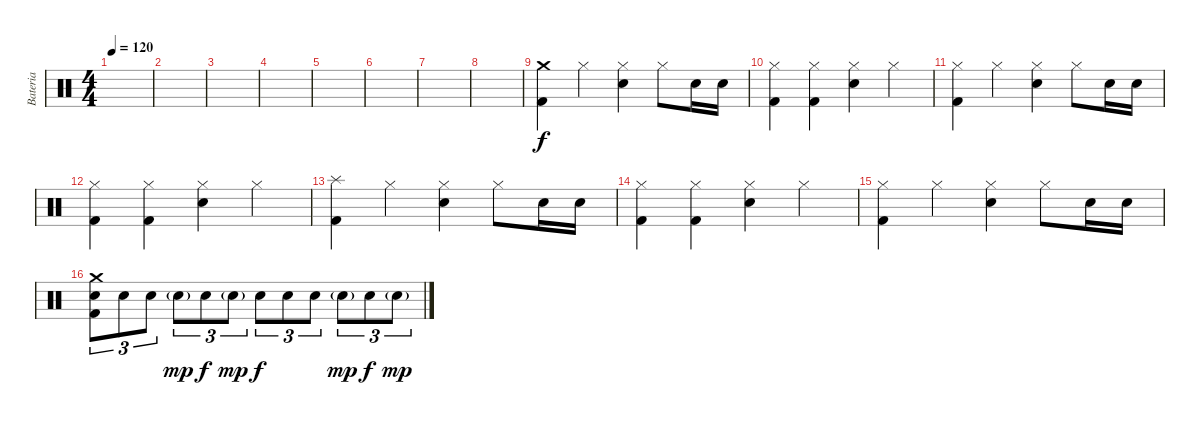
\track ("Bateria" "Bateria") {instrument percussion}
\staff
\articulation defaults
\ts (4 4)
\tempo 120
\clef neutral
\ks c
|
|
|
|
|
|
|
|
("Crash medium (hit)" "Kick (hit) 2").4 "Hi-Hat (closed)".4 ("Hi-Hat (closed)" "Electric Snare (hit)").4 "Hi-Hat (closed)".8 "Electric Snare (hit)".16 "Electric Snare (hit)".16 |
("Hi-Hat (closed)" "Kick (hit) 2").4 ("Hi-Hat (closed)" "Kick (hit) 2").4 ("Hi-Hat (closed)" "Electric Snare (hit)").4 "Hi-Hat (closed)".4 |
("Hi-Hat (closed)" "Kick (hit) 2").4 "Hi-Hat (closed)".4 ("Hi-Hat (closed)" "Electric Snare (hit)").4 "Hi-Hat (closed)".8 "Electric Snare (hit)".16 "Electric Snare (hit)".16 |
("Hi-Hat (closed)" "Kick (hit) 2").4 ("Hi-Hat (closed)" "Kick (hit) 2").4 ("Hi-Hat (closed)" "Electric Snare (hit)").4 "Hi-Hat (closed)".4 |
("Splash (hit)" "Kick (hit) 2").4 "Hi-Hat (closed)".4 ("Hi-Hat (closed)" "Electric Snare (hit)").4 "Hi-Hat (closed)".8 "Electric Snare (hit)".16 "Electric Snare (hit)".16 |
("Hi-Hat (closed)" "Kick (hit) 2").4 ("Hi-Hat (closed)" "Kick (hit) 2").4 ("Hi-Hat (closed)" "Electric Snare (hit)").4 "Hi-Hat (closed)".4 |
("Hi-Hat (closed)" "Kick (hit) 2").4 "Hi-Hat (closed)".4 ("Hi-Hat (closed)" "Electric Snare (hit)").4 "Hi-Hat (closed)".8 "Electric Snare (hit)".16 "Electric Snare (hit)".16 |
("Crash medium (hit)" "Electric Snare (hit)" "Kick (hit) 2").8{tu (3 2)} "Electric Snare (hit)".8{tu (3 2)} "Electric Snare (hit)".8{tu (3 2)} "Electric Snare (hit)"{g}.8{tu (3 2) dy mp} "Electric Snare (hit)".8{tu (3 2) dy f} "Electric Snare (hit)"{g}.8{tu (3 2) dy mp} "Electric Snare (hit)".8{tu (3 2) dy f} "Electric Snare (hit)".8{tu (3 2)} "Electric Snare (hit)".8{tu (3 2)} "Electric Snare (hit)"{g}.8{tu (3 2) dy mp} "Electric Snare (hit)".8{tu (3 2) dy f} "Electric Snare (hit)"{g}.8{tu (3 2) dy mp}
